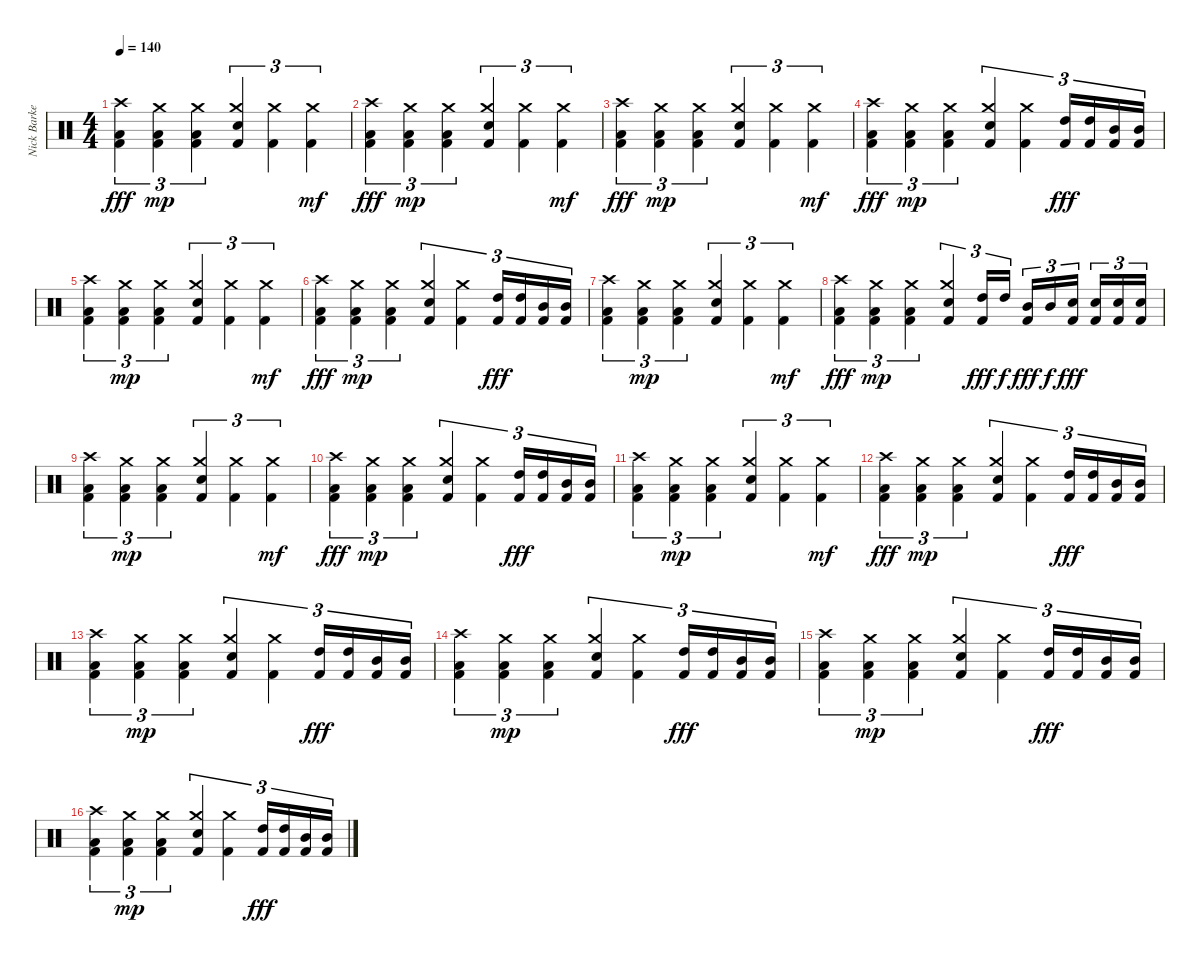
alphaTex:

\track ("Nick Barker - Drums - Percussion" "Nick Barke") {instrument percussion}
\staff {score}
\articulation defaults
\ts (4 4)
\tempo 140
\clef neutral
\ks c
("Kick (hit) 2" "Low Floor Tom (hit)" "Crash high (hit)").4{tu (3 2) dy fff} ("Kick (hit) 2" "Low Floor Tom (hit)" "Crash medium (hit)").4{tu (3 2) dy mp} ("Kick (hit) 2" "Low Floor Tom (hit)" "Crash medium (hit)").4{tu (3 2)} ("Kick (hit) 2" "Snare (hit) 2" "Crash medium (hit)").4{tu (3 2)} ("Kick (hit) 2" "Crash medium (hit)").4{tu (3 2)} ("Kick (hit) 2" "Crash medium (hit)").4{tu (3 2) dy mf} |
("Kick (hit) 2" "Low Floor Tom (hit)" "Crash high (hit)").4{tu (3 2) dy fff} ("Kick (hit) 2" "Low Floor Tom (hit)" "Crash medium (hit)").4{tu (3 2) dy mp} ("Kick (hit) 2" "Low Floor Tom (hit)" "Crash medium (hit)").4{tu (3 2)} ("Kick (hit) 2" "Snare (hit) 2" "Crash medium (hit)").4{tu (3 2)} ("Kick (hit) 2" "Crash medium (hit)").4{tu (3 2)} ("Kick (hit) 2" "Crash medium (hit)").4{tu (3 2) dy mf} |
("Kick (hit) 2" "Low Floor Tom (hit)" "Crash high (hit)").4{tu (3 2) dy fff} ("Kick (hit) 2" "Low Floor Tom (hit)" "Crash medium (hit)").4{tu (3 2) dy mp} ("Kick (hit) 2" "Low Floor Tom (hit)" "Crash medium (hit)").4{tu (3 2)} ("Kick (hit) 2" "Snare (hit) 2" "Crash medium (hit)").4{tu (3 2)} ("Kick (hit) 2" "Crash medium (hit)").4{tu (3 2)} ("Kick (hit) 2" "Crash medium (hit)").4{tu (3 2) dy mf} |
("Kick (hit) 2" "Low Floor Tom (hit)" "Crash high (hit)").4{tu (3 2) dy fff} ("Kick (hit) 2" "Low Floor Tom (hit)" "Crash medium (hit)").4{tu (3 2) dy mp} ("Kick (hit) 2" "Low Floor Tom (hit)" "Crash medium (hit)").4{tu (3 2)} ("Kick (hit) 2" "Snare (hit) 2" "Crash medium (hit)").4{tu (3 2)} ("Kick (hit) 2" "Crash medium (hit)").4{tu (3 2)} ("Kick (hit) 2" "High Tom (hit)").16{tu (3 2) dy fff} ("Kick (hit) 2" "High Tom (hit)").16{tu (3 2)} ("Kick (hit) 2" "Mid Tom (hit)").16{tu (3 2)} ("Kick (hit) 2" "Mid Tom (hit)").16{tu (3 2)} |
("Kick (hit) 2" "Low Floor Tom (hit)" "Crash high (hit)").4{tu (3 2)} ("Kick (hit) 2" "Low Floor Tom (hit)" "Crash medium (hit)").4{tu (3 2) dy mp} ("Kick (hit) 2" "Low Floor Tom (hit)" "Crash medium (hit)").4{tu (3 2)} ("Kick (hit) 2" "Snare (hit) 2" "Crash medium (hit)").4{tu (3 2)} ("Kick (hit) 2" "Crash medium (hit)").4{tu (3 2)} ("Kick (hit) 2" "Crash medium (hit)").4{tu (3 2) dy mf} |
("Kick (hit) 2" "Low Floor Tom (hit)" "Crash high (hit)").4{tu (3 2) dy fff} ("Kick (hit) 2" "Low Floor Tom (hit)" "Crash medium (hit)").4{tu (3 2) dy mp} ("Kick (hit) 2" "Low Floor Tom (hit)" "Crash medium (hit)").4{tu (3 2)} ("Kick (hit) 2" "Snare (hit) 2" "Crash medium (hit)").4{tu (3 2)} ("Kick (hit) 2" "Crash medium (hit)").4{tu (3 2)} ("Kick (hit) 2" "High Tom (hit)").16{tu (3 2) dy fff} ("Kick (hit) 2" "High Tom (hit)").16{tu (3 2)} ("Kick (hit) 2" "Mid Tom (hit)").16{tu (3 2)} ("Kick (hit) 2" "Mid Tom (hit)").16{tu (3 2)} |
("Kick (hit) 2" "Low Floor Tom (hit)" "Crash high (hit)").4{tu (3 2)} ("Kick (hit) 2" "Low Floor Tom (hit)" "Crash medium (hit)").4{tu (3 2) dy mp} ("Kick (hit) 2" "Low Floor Tom (hit)" "Crash medium (hit)").4{tu (3 2)} ("Kick (hit) 2" "Snare (hit) 2" "Crash medium (hit)").4{tu (3 2)} ("Kick (hit) 2" "Crash medium (hit)").4{tu (3 2)} ("Kick (hit) 2" "Crash medium (hit)").4{tu (3 2) dy mf} |
("Kick (hit) 2" "Low Floor Tom (hit)" "Crash high (hit)").4{tu (3 2) dy fff} ("Kick (hit) 2" "Low Floor Tom (hit)" "Crash medium (hit)").4{tu (3 2) dy mp} ("Kick (hit) 2" "Low Floor Tom (hit)" "Crash medium (hit)").4{tu (3 2)} ("Kick (hit) 2" "Snare (hit) 2" "Crash medium (hit)").4{tu (3 2)} ("Kick (hit) 2" "High Tom (hit)").16{tu (3 2) dy fff} "High Tom (hit)".16{tu (3 2) dy f} ("Kick (hit) 2" "Mid Tom (hit)").16{tu (3 2) dy fff} "Mid Tom (hit)".16{tu (3 2) dy f} ("Kick (hit) 2" "Snare (hit) 2").16{tu (3 2) dy fff} ("Kick (hit) 2" "Snare (hit) 2").16{tu (3 2)} ("Kick (hit) 2" "Snare (hit) 2").16{tu (3 2)} ("Kick (hit) 2" "Snare (hit) 2").16{tu (3 2)} |
("Kick (hit) 2" "Low Floor Tom (hit)" "Crash high (hit)").4{tu (3 2)} ("Kick (hit) 2" "Low Floor Tom (hit)" "Crash medium (hit)").4{tu (3 2) dy mp} ("Kick (hit) 2" "Low Floor Tom (hit)" "Crash medium (hit)").4{tu (3 2)} ("Kick (hit) 2" "Snare (hit) 2" "Crash medium (hit)").4{tu (3 2)} ("Kick (hit) 2" "Crash medium (hit)").4{tu (3 2)} ("Kick (hit) 2" "Crash medium (hit)").4{tu (3 2) dy mf} |
("Kick (hit) 2" "Low Floor Tom (hit)" "Crash high (hit)").4{tu (3 2) dy fff} ("Kick (hit) 2" "Low Floor Tom (hit)" "Crash medium (hit)").4{tu (3 2) dy mp} ("Kick (hit) 2" "Low Floor Tom (hit)" "Crash medium (hit)").4{tu (3 2)} ("Kick (hit) 2" "Snare (hit) 2" "Crash medium (hit)").4{tu (3 2)} ("Kick (hit) 2" "Crash medium (hit)").4{tu (3 2)} ("Kick (hit) 2" "High Tom (hit)").16{tu (3 2) dy fff} ("Kick (hit) 2" "High Tom (hit)").16{tu (3 2)} ("Kick (hit) 2" "Mid Tom (hit)").16{tu (3 2)} ("Kick (hit) 2" "Mid Tom (hit)").16{tu (3 2)} |
("Kick (hit) 2" "Low Floor Tom (hit)" "Crash high (hit)").4{tu (3 2)} ("Kick (hit) 2" "Low Floor Tom (hit)" "Crash medium (hit)").4{tu (3 2) dy mp} ("Kick (hit) 2" "Low Floor Tom (hit)" "Crash medium (hit)").4{tu (3 2)} ("Kick (hit) 2" "Snare (hit) 2" "Crash medium (hit)").4{tu (3 2)} ("Kick (hit) 2" "Crash medium (hit)").4{tu (3 2)} ("Kick (hit) 2" "Crash medium (hit)").4{tu (3 2) dy mf} |
("Kick (hit) 2" "Low Floor Tom (hit)" "Crash high (hit)").4{tu (3 2) dy fff} ("Kick (hit) 2" "Low Floor Tom (hit)" "Crash medium (hit)").4{tu (3 2) dy mp} ("Kick (hit) 2" "Low Floor Tom (hit)" "Crash medium (hit)").4{tu (3 2)} ("Kick (hit) 2" "Snare (hit) 2" "Crash medium (hit)").4{tu (3 2)} ("Kick (hit) 2" "Crash medium (hit)").4{tu (3 2)} ("Kick (hit) 2" "High Tom (hit)").16{tu (3 2) dy fff} ("Kick (hit) 2" "High Tom (hit)").16{tu (3 2)} ("Kick (hit) 2" "Mid Tom (hit)").16{tu (3 2)} ("Kick (hit) 2" "Mid Tom (hit)").16{tu (3 2)} |
("Kick (hit) 2" "Low Floor Tom (hit)" "Crash high (hit)").4{tu (3 2)} ("Kick (hit) 2" "Low Floor Tom (hit)" "Crash medium (hit)").4{tu (3 2) dy mp} ("Kick (hit) 2" "Low Floor Tom (hit)" "Crash medium (hit)").4{tu (3 2)} ("Kick (hit) 2" "Snare (hit) 2" "Crash medium (hit)").4{tu (3 2)} ("Kick (hit) 2" "Crash medium (hit)").4{tu (3 2)} ("Kick (hit) 2" "High Tom (hit)").16{tu (3 2) dy fff} ("Kick (hit) 2" "High Tom (hit)").16{tu (3 2)} ("Kick (hit) 2" "Mid Tom (hit)").16{tu (3 2)} ("Kick (hit) 2" "Mid Tom (hit)").16{tu (3 2)} |
("Kick (hit) 2" "Low Floor Tom (hit)" "Crash high (hit)").4{tu (3 2)} ("Kick (hit) 2" "Low Floor Tom (hit)" "Crash medium (hit)").4{tu (3 2) dy mp} ("Kick (hit) 2" "Low Floor Tom (hit)" "Crash medium (hit)").4{tu (3 2)} ("Kick (hit) 2" "Snare (hit) 2" "Crash medium (hit)").4{tu (3 2)} ("Kick (hit) 2" "Crash medium (hit)").4{tu (3 2)} ("Kick (hit) 2" "High Tom (hit)").16{tu (3 2) dy fff} ("Kick (hit) 2" "High Tom (hit)").16{tu (3 2)} ("Kick (hit) 2" "Mid Tom (hit)").16{tu (3 2)} ("Kick (hit) 2" "Mid Tom (hit)").16{tu (3 2)} |
("Kick (hit) 2" "Low Floor Tom (hit)" "Crash high (hit)").4{tu (3 2)} ("Kick (hit) 2" "Low Floor Tom (hit)" "Crash medium (hit)").4{tu (3 2) dy mp} ("Kick (hit) 2" "Low Floor Tom (hit)" "Crash medium (hit)").4{tu (3 2)} ("Kick (hit) 2" "Snare (hit) 2" "Crash medium (hit)").4{tu (3 2)} ("Kick (hit) 2" "Crash medium (hit)").4{tu (3 2)} ("Kick (hit) 2" "High Tom (hit)").16{tu (3 2) dy fff} ("Kick (hit) 2" "High Tom (hit)").16{tu (3 2)} ("Kick (hit) 2" "Mid Tom (hit)").16{tu (3 2)} ("Kick (hit) 2" "Mid Tom (hit)").16{tu (3 2)} |
("Kick (hit) 2" "Low Floor Tom (hit)" "Crash high (hit)").4{tu (3 2)} ("Kick (hit) 2" "Low Floor Tom (hit)" "Crash medium (hit)").4{tu (3 2) dy mp} ("Kick (hit) 2" "Low Floor Tom (hit)" "Crash medium (hit)").4{tu (3 2)} ("Kick (hit) 2" "Snare (hit) 2" "Crash medium (hit)").4{tu (3 2)} ("Kick (hit) 2" "Crash medium (hit)").4{tu (3 2)} ("Kick (hit) 2" "High Tom (hit)").16{tu (3 2) dy fff} ("Kick (hit) 2" "High Tom (hit)").16{tu (3 2)} ("Kick (hit) 2" "Mid Tom (hit)").16{tu (3 2)} ("Kick (hit) 2" "Mid Tom (hit)").16{tu (3 2)}
